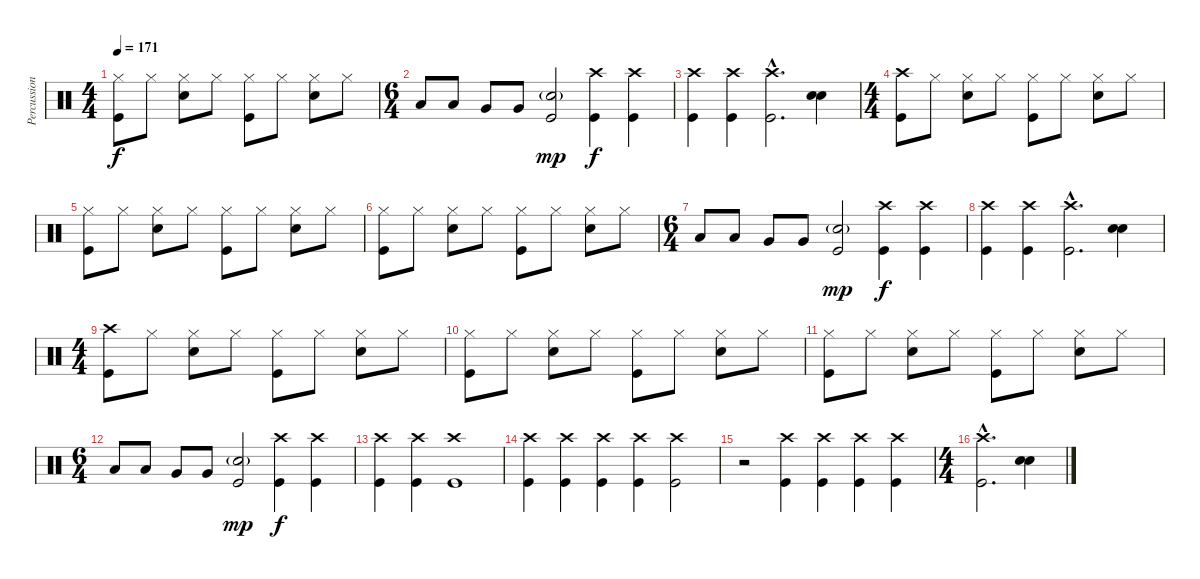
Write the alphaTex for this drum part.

\track ("Percussions" "Percussion") {instrument percussion}
\staff {score}
\articulation defaults
\ts (4 4)
\tempo 171
\clef neutral
\ks c
("Hi-Hat (closed)" "Kick (hit)").8{dy f} "Hi-Hat (closed)".8 ("Hi-Hat (closed)" "Electric Snare (hit)").8 "Hi-Hat (closed)".8 ("Hi-Hat (closed)" "Kick (hit)").8 "Hi-Hat (closed)".8 ("Hi-Hat (closed)" "Electric Snare (hit)").8 "Hi-Hat (closed)".8 |
\ts (6 4)
"Low Tom (hit)".8 "Low Tom (hit)".8 "Very Low Tom (hit)".8 "Very Low Tom (hit)".8 ("Electric Snare (hit)"{g} "Kick (hit)").2{dy mp} ("Crash high (hit)" "Kick (hit)").4{dy f} ("Crash high (hit)" "Kick (hit)").4 |
("Crash high (hit)" "Kick (hit)").4 ("Crash high (hit)" "Kick (hit)").4 ("Crash high (hit)"{hac} "Kick (hit)"{hac}).2{d} ("Electric Snare (hit)" "Electric Snare (hit)").4{bd 120} |
\ts (4 4)
("Crash high (hit)" "Kick (hit)").8 "Hi-Hat (closed)".8 ("Hi-Hat (closed)" "Electric Snare (hit)").8 "Hi-Hat (closed)".8 ("Hi-Hat (closed)" "Kick (hit)").8 "Hi-Hat (closed)".8 ("Hi-Hat (closed)" "Electric Snare (hit)").8 "Hi-Hat (closed)".8 |
("Hi-Hat (closed)" "Kick (hit)").8 "Hi-Hat (closed)".8 ("Hi-Hat (closed)" "Electric Snare (hit)").8 "Hi-Hat (closed)".8 ("Hi-Hat (closed)" "Kick (hit)").8 "Hi-Hat (closed)".8 ("Hi-Hat (closed)" "Electric Snare (hit)").8 "Hi-Hat (closed)".8 |
("Hi-Hat (closed)" "Kick (hit)").8 "Hi-Hat (closed)".8 ("Hi-Hat (closed)" "Electric Snare (hit)").8 "Hi-Hat (closed)".8 ("Hi-Hat (closed)" "Kick (hit)").8 "Hi-Hat (closed)".8 ("Hi-Hat (closed)" "Electric Snare (hit)").8 "Hi-Hat (closed)".8 |
\ts (6 4)
"Low Tom (hit)".8 "Low Tom (hit)".8 "Very Low Tom (hit)".8 "Very Low Tom (hit)".8 ("Electric Snare (hit)"{g} "Kick (hit)").2{dy mp} ("Crash high (hit)" "Kick (hit)").4{dy f} ("Crash high (hit)" "Kick (hit)").4 |
("Crash high (hit)" "Kick (hit)").4 ("Crash high (hit)" "Kick (hit)").4 ("Crash high (hit)"{hac} "Kick (hit)"{hac}).2{d} ("Electric Snare (hit)" "Electric Snare (hit)").4{bd 120} |
\ts (4 4)
("Crash high (hit)" "Kick (hit)").8 "Hi-Hat (closed)".8 ("Hi-Hat (closed)" "Electric Snare (hit)").8 "Hi-Hat (closed)".8 ("Hi-Hat (closed)" "Kick (hit)").8 "Hi-Hat (closed)".8 ("Hi-Hat (closed)" "Electric Snare (hit)").8 "Hi-Hat (closed)".8 |
("Hi-Hat (closed)" "Kick (hit)").8 "Hi-Hat (closed)".8 ("Hi-Hat (closed)" "Electric Snare (hit)").8 "Hi-Hat (closed)".8 ("Hi-Hat (closed)" "Kick (hit)").8 "Hi-Hat (closed)".8 ("Hi-Hat (closed)" "Electric Snare (hit)").8 "Hi-Hat (closed)".8 |
("Hi-Hat (closed)" "Kick (hit)").8 "Hi-Hat (closed)".8 ("Hi-Hat (closed)" "Electric Snare (hit)").8 "Hi-Hat (closed)".8 ("Hi-Hat (closed)" "Kick (hit)").8 "Hi-Hat (closed)".8 ("Hi-Hat (closed)" "Electric Snare (hit)").8 "Hi-Hat (closed)".8 |
\ts (6 4)
"Low Tom (hit)".8 "Low Tom (hit)".8 "Very Low Tom (hit)".8 "Very Low Tom (hit)".8 ("Electric Snare (hit)"{g} "Kick (hit)").2{dy mp} ("Crash high (hit)" "Kick (hit)").4{dy f} ("Crash high (hit)" "Kick (hit)").4 |
("Crash high (hit)" "Kick (hit)").4 ("Crash high (hit)" "Kick (hit)").4 ("Crash high (hit)" "Kick (hit)").1 |
("Crash high (hit)" "Kick (hit)").4 ("Crash high (hit)" "Kick (hit)").4 ("Crash high (hit)" "Kick (hit)").4 ("Crash high (hit)" "Kick (hit)").4 ("Crash high (hit)" "Kick (hit)").2 |
r.2 ("Crash high (hit)" "Kick (hit)").4 ("Crash high (hit)" "Kick (hit)").4 ("Crash high (hit)" "Kick (hit)").4 ("Crash high (hit)" "Kick (hit)").4 |
\ts (4 4)
("Crash high (hit)"{hac} "Kick (hit)"{hac}).2{d} ("Electric Snare (hit)" "Electric Snare (hit)").4{bd 120}
